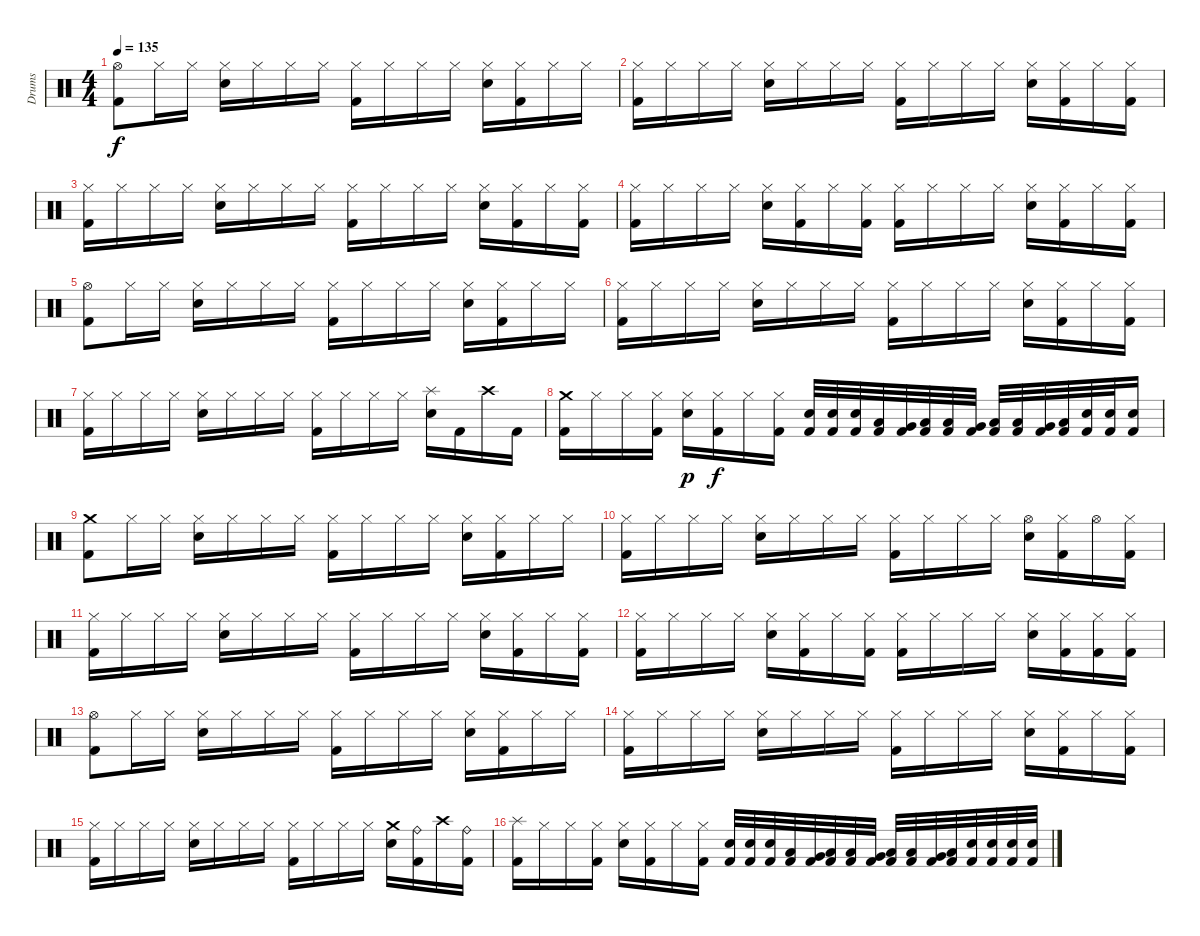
\track ("Drums" "Drums") {instrument percussion}
\staff {score}
\articulation defaults
\ts (4 4)
\tempo 135
\clef neutral
\ks c
("Hi-Hat (open)" "Kick (hit) 2").8{dy f} "Hi-Hat (closed)".16 "Hi-Hat (closed)".16 ("Hi-Hat (closed)" "Electric Snare (hit)").16 "Hi-Hat (closed)".16 "Hi-Hat (closed)".16 "Hi-Hat (closed)".16 ("Hi-Hat (closed)" "Kick (hit) 2").16 "Hi-Hat (closed)".16 "Hi-Hat (closed)".16 "Hi-Hat (closed)".16 ("Hi-Hat (closed)" "Electric Snare (hit)").16 ("Hi-Hat (closed)" "Kick (hit) 2").16 "Hi-Hat (closed)".16 "Hi-Hat (closed)".16 |
("Hi-Hat (closed)" "Kick (hit) 2").16 "Hi-Hat (closed)".16 "Hi-Hat (closed)".16 "Hi-Hat (closed)".16 ("Hi-Hat (closed)" "Electric Snare (hit)").16 "Hi-Hat (closed)".16 "Hi-Hat (closed)".16 "Hi-Hat (closed)".16 ("Hi-Hat (closed)" "Kick (hit) 2").16 "Hi-Hat (closed)".16 "Hi-Hat (closed)".16 "Hi-Hat (closed)".16 ("Hi-Hat (closed)" "Electric Snare (hit)").16 ("Hi-Hat (closed)" "Kick (hit) 2").16 "Hi-Hat (closed)".16 ("Hi-Hat (closed)" "Kick (hit) 2").16 |
("Hi-Hat (closed)" "Kick (hit) 2").16 "Hi-Hat (closed)".16 "Hi-Hat (closed)".16 "Hi-Hat (closed)".16 ("Hi-Hat (closed)" "Electric Snare (hit)").16 "Hi-Hat (closed)".16 "Hi-Hat (closed)".16 "Hi-Hat (closed)".16 ("Hi-Hat (closed)" "Kick (hit) 2").16 "Hi-Hat (closed)".16 "Hi-Hat (closed)".16 "Hi-Hat (closed)".16 ("Hi-Hat (closed)" "Electric Snare (hit)").16 ("Hi-Hat (closed)" "Kick (hit) 2").16 "Hi-Hat (closed)".16 ("Hi-Hat (closed)" "Kick (hit) 2").16 |
("Hi-Hat (closed)" "Kick (hit) 2").16 "Hi-Hat (closed)".16 "Hi-Hat (closed)".16 "Hi-Hat (closed)".16 ("Hi-Hat (closed)" "Electric Snare (hit)").16 ("Hi-Hat (closed)" "Kick (hit) 2").16 "Hi-Hat (closed)".16 ("Hi-Hat (closed)" "Kick (hit) 2").16 ("Hi-Hat (closed)" "Kick (hit) 2").16 "Hi-Hat (closed)".16 "Hi-Hat (closed)".16 "Hi-Hat (closed)".16 ("Hi-Hat (closed)" "Electric Snare (hit)").16 ("Hi-Hat (closed)" "Kick (hit) 2").16 "Hi-Hat (closed)".16 ("Hi-Hat (closed)" "Kick (hit) 2").16 |
("Hi-Hat (open)" "Kick (hit) 2").8 "Hi-Hat (closed)".16 "Hi-Hat (closed)".16 ("Hi-Hat (closed)" "Electric Snare (hit)").16 "Hi-Hat (closed)".16 "Hi-Hat (closed)".16 "Hi-Hat (closed)".16 ("Hi-Hat (closed)" "Kick (hit) 2").16 "Hi-Hat (closed)".16 "Hi-Hat (closed)".16 "Hi-Hat (closed)".16 ("Hi-Hat (closed)" "Electric Snare (hit)").16 ("Hi-Hat (closed)" "Kick (hit) 2").16 "Hi-Hat (closed)".16 "Hi-Hat (closed)".16 |
("Hi-Hat (closed)" "Kick (hit) 2").16 "Hi-Hat (closed)".16 "Hi-Hat (closed)".16 "Hi-Hat (closed)".16 ("Hi-Hat (closed)" "Electric Snare (hit)").16 "Hi-Hat (closed)".16 "Hi-Hat (closed)".16 "Hi-Hat (closed)".16 ("Hi-Hat (closed)" "Kick (hit) 2").16 "Hi-Hat (closed)".16 "Hi-Hat (closed)".16 "Hi-Hat (closed)".16 ("Hi-Hat (closed)" "Electric Snare (hit)").16 ("Hi-Hat (closed)" "Kick (hit) 2").16 "Hi-Hat (closed)".16 ("Hi-Hat (closed)" "Kick (hit) 2").16 |
("Hi-Hat (closed)" "Kick (hit) 2").16 "Hi-Hat (closed)".16 "Hi-Hat (closed)".16 "Hi-Hat (closed)".16 ("Hi-Hat (closed)" "Electric Snare (hit)").16 "Hi-Hat (closed)".16 "Hi-Hat (closed)".16 "Hi-Hat (closed)".16 ("Hi-Hat (closed)" "Kick (hit) 2").16 "Hi-Hat (closed)".16 "Hi-Hat (closed)".16 "Hi-Hat (closed)".16 ("Splash (hit)" "Electric Snare (hit)").16 "Kick (hit) 2".16 "Crash high (hit)".16 "Kick (hit) 2".16 |
("Crash medium (hit)" "Kick (hit) 2").16 "Hi-Hat (closed)".16 "Hi-Hat (closed)".16 ("Hi-Hat (closed)" "Kick (hit) 2").16 ("Hi-Hat (closed)" "Electric Snare (hit)").16{dy p} ("Hi-Hat (closed)" "Kick (hit) 2").16{dy f} "Hi-Hat (closed)".16 ("Hi-Hat (closed)" "Kick (hit) 2").16 ("Electric Snare (hit)" "Kick (hit) 2").32 ("Electric Snare (hit)" "Kick (hit) 2").32 ("Electric Snare (hit)" "Kick (hit) 2").32 ("Low Tom (hit)" "Kick (hit) 2").32 ("Very Low Tom (hit)" "Kick (hit) 2").32 ("Low Floor Tom (hit)" "Kick (hit) 2").32 ("Low Tom (hit)" "Kick (hit) 2").32 ("Very Low Tom (hit)" "Kick (hit) 2").32 ("Low Floor Tom (hit)" "Kick (hit) 2").32 ("Low Tom (hit)" "Kick (hit) 2").32 ("Very Low Tom (hit)" "Kick (hit) 2").32 ("Low Floor Tom (hit)" "Kick (hit) 2").32 ("Electric Snare (hit)" "Kick (hit) 2").32 ("Electric Snare (hit)" "Kick (hit) 2").32 ("Electric Snare (hit)" "Kick (hit) 2").16 |
("Crash medium (hit)" "Kick (hit) 2").8 "Hi-Hat (closed)".16 "Hi-Hat (closed)".16 ("Hi-Hat (closed)" "Electric Snare (hit)").16 "Hi-Hat (closed)".16 "Hi-Hat (closed)".16 "Hi-Hat (closed)".16 ("Hi-Hat (closed)" "Kick (hit) 2").16 "Hi-Hat (closed)".16 "Hi-Hat (closed)".16 "Hi-Hat (closed)".16 ("Hi-Hat (closed)" "Electric Snare (hit)").16 ("Hi-Hat (closed)" "Kick (hit) 2").16 "Hi-Hat (closed)".16 "Hi-Hat (closed)".16 |
("Hi-Hat (closed)" "Kick (hit) 2").16 "Hi-Hat (closed)".16 "Hi-Hat (closed)".16 "Hi-Hat (closed)".16 ("Hi-Hat (closed)" "Electric Snare (hit)").16 "Hi-Hat (closed)".16 "Hi-Hat (closed)".16 "Hi-Hat (closed)".16 ("Hi-Hat (closed)" "Kick (hit) 2").16 "Hi-Hat (closed)".16 "Hi-Hat (closed)".16 "Hi-Hat (closed)".16 ("Hi-Hat (open)" "Electric Snare (hit)").16 ("Hi-Hat (closed)" "Kick (hit) 2").16 "Hi-Hat (open)".16 ("Hi-Hat (closed)" "Kick (hit) 2").16 |
("Hi-Hat (closed)" "Kick (hit) 2").16 "Hi-Hat (closed)".16 "Hi-Hat (closed)".16 "Hi-Hat (closed)".16 ("Hi-Hat (closed)" "Electric Snare (hit)").16 "Hi-Hat (closed)".16 "Hi-Hat (closed)".16 "Hi-Hat (closed)".16 ("Hi-Hat (closed)" "Kick (hit) 2").16 "Hi-Hat (closed)".16 "Hi-Hat (closed)".16 "Hi-Hat (closed)".16 ("Hi-Hat (closed)" "Electric Snare (hit)").16 ("Hi-Hat (closed)" "Kick (hit) 2").16 "Hi-Hat (closed)".16 ("Hi-Hat (closed)" "Kick (hit) 2").16 |
("Hi-Hat (closed)" "Kick (hit) 2").16 "Hi-Hat (closed)".16 "Hi-Hat (closed)".16 "Hi-Hat (closed)".16 ("Hi-Hat (closed)" "Electric Snare (hit)").16 ("Hi-Hat (closed)" "Kick (hit) 2").16 "Hi-Hat (closed)".16 ("Hi-Hat (closed)" "Kick (hit) 2").16 ("Hi-Hat (closed)" "Kick (hit) 2").16 "Hi-Hat (closed)".16 "Hi-Hat (closed)".16 "Hi-Hat (closed)".16 ("Hi-Hat (closed)" "Electric Snare (hit)").16 ("Hi-Hat (closed)" "Kick (hit) 2").16 ("Hi-Hat (closed)" "Kick (hit) 2").16 ("Hi-Hat (closed)" "Kick (hit) 2").16 |
("Hi-Hat (open)" "Kick (hit) 2").8 "Hi-Hat (closed)".16 "Hi-Hat (closed)".16 ("Hi-Hat (closed)" "Electric Snare (hit)").16 "Hi-Hat (closed)".16 "Hi-Hat (closed)".16 "Hi-Hat (closed)".16 ("Hi-Hat (closed)" "Kick (hit) 2").16 "Hi-Hat (closed)".16 "Hi-Hat (closed)".16 "Hi-Hat (closed)".16 ("Hi-Hat (closed)" "Electric Snare (hit)").16 ("Hi-Hat (closed)" "Kick (hit) 2").16 "Hi-Hat (closed)".16 "Hi-Hat (closed)".16 |
("Hi-Hat (closed)" "Kick (hit) 2").16 "Hi-Hat (closed)".16 "Hi-Hat (closed)".16 "Hi-Hat (closed)".16 ("Hi-Hat (closed)" "Electric Snare (hit)").16 "Hi-Hat (closed)".16 "Hi-Hat (closed)".16 "Hi-Hat (closed)".16 ("Hi-Hat (closed)" "Kick (hit) 2").16 "Hi-Hat (closed)".16 "Hi-Hat (closed)".16 "Hi-Hat (closed)".16 ("Hi-Hat (closed)" "Electric Snare (hit)").16 ("Hi-Hat (closed)" "Kick (hit) 2").16 "Hi-Hat (closed)".16 ("Hi-Hat (closed)" "Kick (hit) 2").16 |
("Hi-Hat (closed)" "Kick (hit) 2").16 "Hi-Hat (closed)".16 "Hi-Hat (closed)".16 "Hi-Hat (closed)".16 ("Hi-Hat (closed)" "Electric Snare (hit)").16 "Hi-Hat (closed)".16 "Hi-Hat (closed)".16 "Hi-Hat (closed)".16 ("Hi-Hat (closed)" "Kick (hit) 2").16 "Hi-Hat (closed)".16 "Hi-Hat (closed)".16 "Hi-Hat (closed)".16 ("Crash medium (hit)" "Electric Snare (hit)").16 ("Ride (bell)" "Kick (hit) 2").16 "Crash high (hit)".16 ("Ride (bell)" "Kick (hit) 2").16 |
("Splash (hit)" "Kick (hit) 2").16 "Hi-Hat (closed)".16 "Hi-Hat (closed)".16 ("Hi-Hat (closed)" "Kick (hit) 2").16 ("Hi-Hat (closed)" "Electric Snare (hit)").16 ("Hi-Hat (closed)" "Kick (hit) 2").16 "Hi-Hat (closed)".16 ("Hi-Hat (closed)" "Kick (hit) 2").16 ("Electric Snare (hit)" "Kick (hit) 2").32 ("Electric Snare (hit)" "Kick (hit) 2").32 ("Electric Snare (hit)" "Kick (hit) 2").32 ("Low Tom (hit)" "Kick (hit) 2").32 ("Very Low Tom (hit)" "Kick (hit) 2").32 ("Low Floor Tom (hit)" "Kick (hit) 2").32 ("Low Tom (hit)" "Kick (hit) 2").32 ("Very Low Tom (hit)" "Kick (hit) 2").32 ("Low Floor Tom (hit)" "Kick (hit) 2").32 ("Low Tom (hit)" "Kick (hit) 2").32 ("Very Low Tom (hit)" "Kick (hit) 2").32 ("Low Floor Tom (hit)" "Kick (hit) 2").32 ("Electric Snare (hit)" "Kick (hit) 2").32 ("Electric Snare (hit)" "Kick (hit) 2").32 ("Electric Snare (hit)" "Kick (hit) 2").32 ("Electric Snare (hit)" "Kick (hit) 2").32
